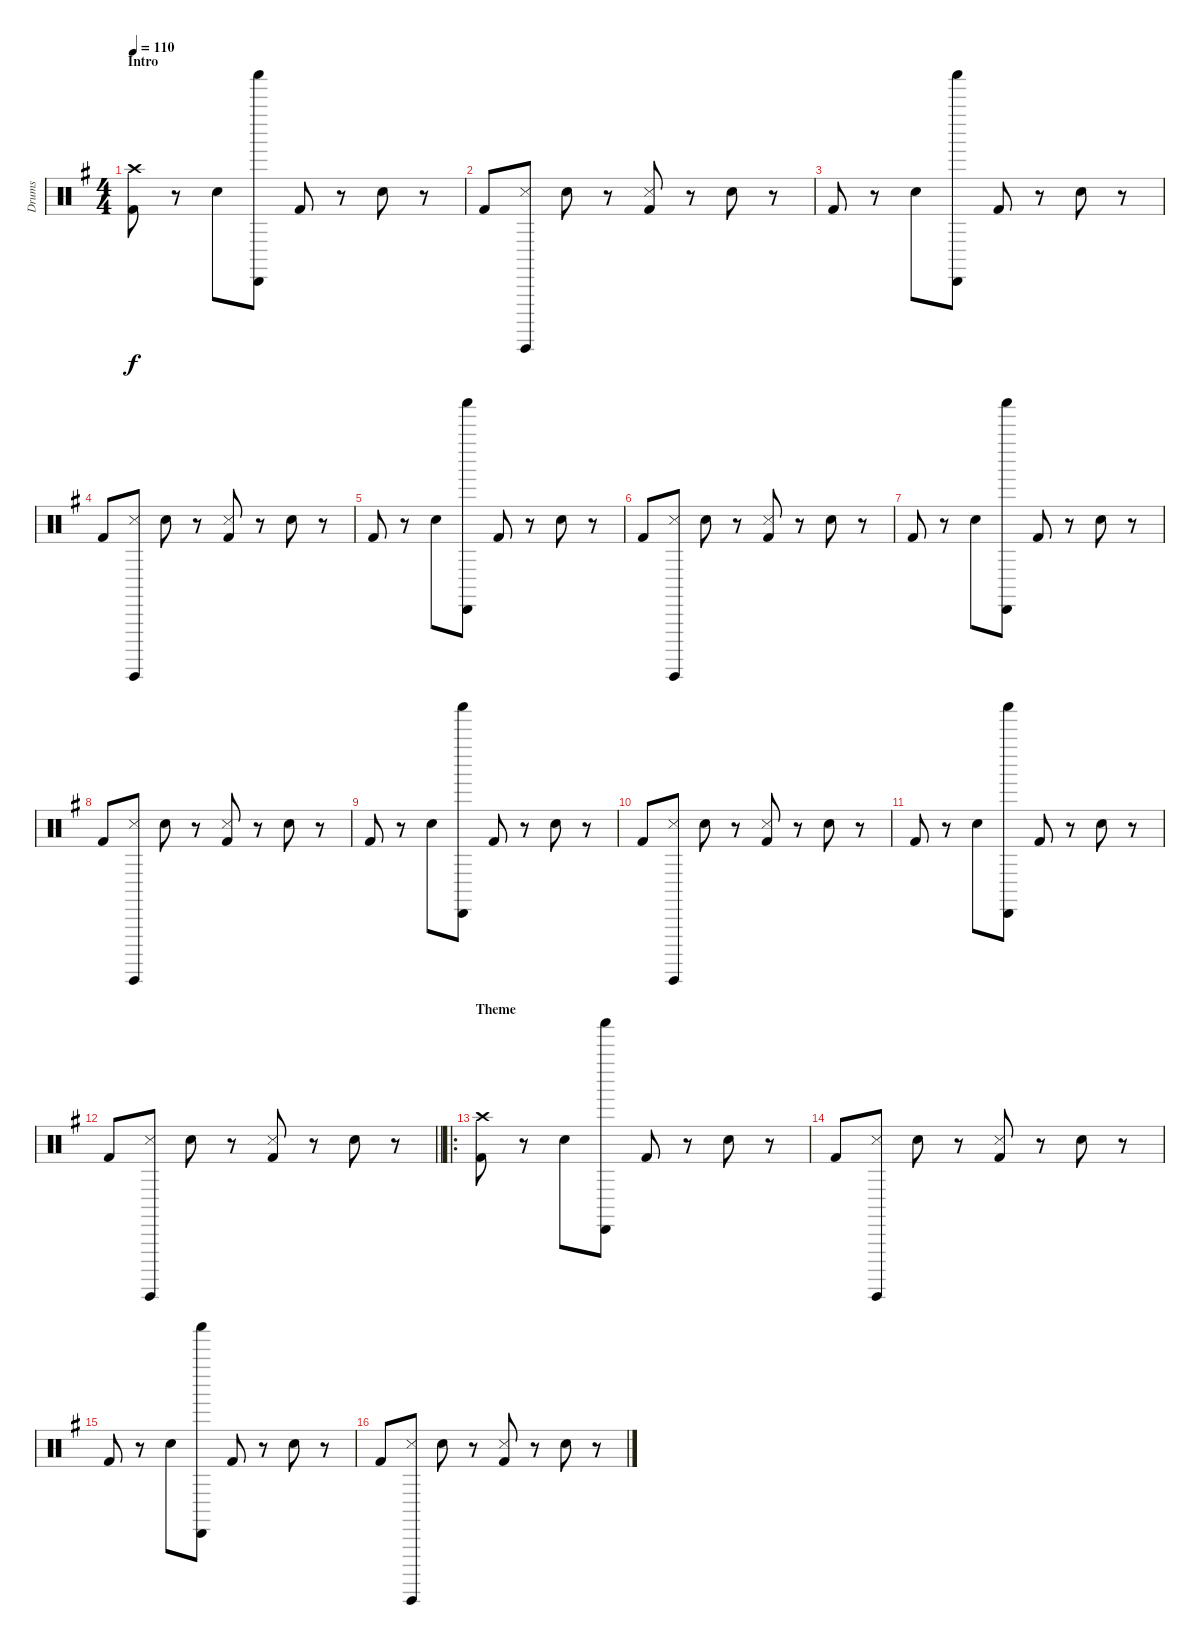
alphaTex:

\track ("Drums" "Drums") {instrument percussion}
\staff {score}
\articulation defaults
\ts (4 4)
\section ("" "Intro")
\tempo 110
\clef neutral
\ks eminor
("Crash high (hit)" "Kick (hit) 2").8{dy f} r.8 "Electric Snare (hit)".8 ("Shaker (hit)" "Cabasa (hit)").8 "Kick (hit) 2".8 r.8 "Electric Snare (hit)".8 r.8 |
"Kick (hit) 2".8 ("Snare (side stick) 3" "Guiro (hit)").8 "Electric Snare (hit)".8 r.8 ("Snare (side stick) 3" "Kick (hit) 2").8 r.8 "Electric Snare (hit)".8 r.8 |
"Kick (hit) 2".8 r.8 "Electric Snare (hit)".8 ("Shaker (hit)" "Cabasa (hit)").8 "Kick (hit) 2".8 r.8 "Electric Snare (hit)".8 r.8 |
"Kick (hit) 2".8 ("Snare (side stick) 3" "Guiro (hit)").8 "Electric Snare (hit)".8 r.8 ("Snare (side stick) 3" "Kick (hit) 2").8 r.8 "Electric Snare (hit)".8 r.8 |
"Kick (hit) 2".8 r.8 "Electric Snare (hit)".8 ("Shaker (hit)" "Cabasa (hit)").8 "Kick (hit) 2".8 r.8 "Electric Snare (hit)".8 r.8 |
"Kick (hit) 2".8 ("Snare (side stick) 3" "Guiro (hit)").8 "Electric Snare (hit)".8 r.8 ("Snare (side stick) 3" "Kick (hit) 2").8 r.8 "Electric Snare (hit)".8 r.8 |
"Kick (hit) 2".8 r.8 "Electric Snare (hit)".8 ("Shaker (hit)" "Cabasa (hit)").8 "Kick (hit) 2".8 r.8 "Electric Snare (hit)".8 r.8 |
"Kick (hit) 2".8 ("Snare (side stick) 3" "Guiro (hit)").8 "Electric Snare (hit)".8 r.8 ("Snare (side stick) 3" "Kick (hit) 2").8 r.8 "Electric Snare (hit)".8 r.8 |
"Kick (hit) 2".8 r.8 "Electric Snare (hit)".8 ("Shaker (hit)" "Cabasa (hit)").8 "Kick (hit) 2".8 r.8 "Electric Snare (hit)".8 r.8 |
"Kick (hit) 2".8 ("Snare (side stick) 3" "Guiro (hit)").8 "Electric Snare (hit)".8 r.8 ("Snare (side stick) 3" "Kick (hit) 2").8 r.8 "Electric Snare (hit)".8 r.8 |
"Kick (hit) 2".8 r.8 "Electric Snare (hit)".8 ("Shaker (hit)" "Cabasa (hit)").8 "Kick (hit) 2".8 r.8 "Electric Snare (hit)".8 r.8 |
\barLineRight lightlight "Kick (hit) 2".8
("Snare (side stick) 3" "Guiro (hit)").8 "Electric Snare (hit)".8 r.8 ("Snare (side stick) 3" "Kick (hit) 2").8 r.8 "Electric Snare (hit)".8 r.8 |
\ro
\section ("" "Theme")
("Crash high (hit)" "Kick (hit) 2").8 r.8 "Electric Snare (hit)".8 ("Shaker (hit)" "Cabasa (hit)").8 "Kick (hit) 2".8 r.8 "Electric Snare (hit)".8 r.8 |
"Kick (hit) 2".8 ("Snare (side stick) 3" "Guiro (hit)").8 "Electric Snare (hit)".8 r.8 ("Snare (side stick) 3" "Kick (hit) 2").8 r.8 "Electric Snare (hit)".8 r.8 |
"Kick (hit) 2".8 r.8 "Electric Snare (hit)".8 ("Shaker (hit)" "Cabasa (hit)").8 "Kick (hit) 2".8 r.8 "Electric Snare (hit)".8 r.8 |
"Kick (hit) 2".8 ("Snare (side stick) 3" "Guiro (hit)").8 "Electric Snare (hit)".8 r.8 ("Snare (side stick) 3" "Kick (hit) 2").8 r.8 "Electric Snare (hit)".8 r.8
